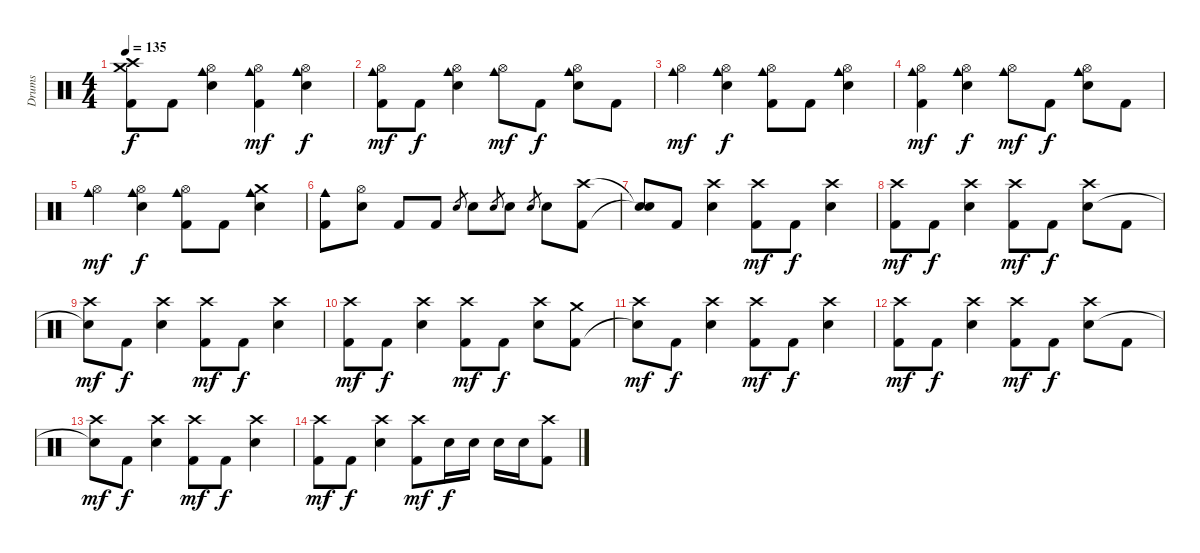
\track ("Drums" "Drums") {instrument percussion}
\staff {score}
\articulation defaults
\ts (4 4)
\tempo 135
\clef neutral
\ks c
("Crash high (hit)"{t} "Crash medium (hit)"{t} "Kick (hit) 2"{t}).8{dy f} "Kick (hit) 2".8 ("Hi-Hat (open)" "Cowbell medium (hit)" "Electric Snare (hit)").4 ("Hi-Hat (open)" "Cowbell medium (hit)" "Kick (hit) 2").4{dy mf} ("Hi-Hat (open)" "Cowbell medium (hit)" "Electric Snare (hit)").4{dy f} |
("Hi-Hat (open)" "Cowbell medium (hit)" "Kick (hit) 2").8{dy mf} "Kick (hit) 2".8{dy f} ("Hi-Hat (open)" "Cowbell medium (hit)" "Electric Snare (hit)").4 ("Hi-Hat (open)" "Cowbell medium (hit)").8{dy mf} "Kick (hit) 2".8{dy f} ("Hi-Hat (open)" "Cowbell medium (hit)" "Electric Snare (hit)").8 "Kick (hit) 2".8 |
("Hi-Hat (open)" "Cowbell medium (hit)").4{dy mf} ("Hi-Hat (open)" "Cowbell medium (hit)" "Electric Snare (hit)").4{dy f} ("Hi-Hat (open)" "Cowbell medium (hit)" "Kick (hit) 2").8 "Kick (hit) 2".8 ("Hi-Hat (open)" "Cowbell medium (hit)" "Electric Snare (hit)").4 |
("Hi-Hat (open)" "Cowbell medium (hit)" "Kick (hit) 2").4{dy mf} ("Hi-Hat (open)" "Cowbell medium (hit)" "Electric Snare (hit)").4{dy f} ("Hi-Hat (open)" "Cowbell medium (hit)").8{dy mf} "Kick (hit) 2".8{dy f} ("Hi-Hat (open)" "Cowbell medium (hit)" "Electric Snare (hit)").8 "Kick (hit) 2".8 |
("Hi-Hat (open)" "Cowbell medium (hit)").4{dy mf} ("Hi-Hat (open)" "Cowbell medium (hit)" "Electric Snare (hit)").4{dy f} ("Hi-Hat (open)" "Cowbell medium (hit)" "Kick (hit) 2").8 "Kick (hit) 2".8 ("Crash medium (hit)" "Cowbell medium (hit)" "Electric Snare (hit)").4 |
("Cowbell medium (hit)" "Kick (hit) 2").8 ("Hi-Hat (open)" "Electric Snare (hit)").8 "Kick (hit) 2".8 "Kick (hit) 2".8 "Electric Snare (hit)".8{gr} "Electric Snare (hit)".8 "Electric Snare (hit)".8{gr} "Electric Snare (hit)".8 "Electric Snare (hit)".8{gr} "Electric Snare (hit)".8 ("Crash high (hit)" "Kick (hit) 2").8 |
("Snare (hit)"{t} "Snare (hit)"{t}).8 "Kick (hit) 2".8 ("Crash high (hit)" "Electric Snare (hit)").4 ("Crash high (hit)" "Kick (hit) 2").8{dy mf} "Kick (hit) 2".8{dy f} ("Crash high (hit)" "Electric Snare (hit)").4 |
("Crash high (hit)" "Kick (hit) 2").8{dy mf} "Kick (hit) 2".8{dy f} ("Crash high (hit)" "Electric Snare (hit)").4 ("Crash high (hit)" "Kick (hit) 2").8{dy mf} "Kick (hit) 2".8{dy f} ("Crash high (hit)" "Electric Snare (hit)").8 "Kick (hit) 2".8 |
("Crash high (hit)" "Snare (hit)"{t}).8{dy mf} "Kick (hit) 2".8{dy f} ("Crash high (hit)" "Electric Snare (hit)").4 ("Crash high (hit)" "Kick (hit) 2").8{dy mf} "Kick (hit) 2".8{dy f} ("Crash high (hit)" "Electric Snare (hit)").4 |
("Crash high (hit)" "Kick (hit) 2").8{dy mf} "Kick (hit) 2".8{dy f} ("Crash high (hit)" "Electric Snare (hit)").4 ("Crash high (hit)" "Kick (hit) 2").8{dy mf} "Kick (hit) 2".8{dy f} ("Crash high (hit)" "Electric Snare (hit)").8 ("Crash medium (hit)" "Kick (hit) 2").8 |
("Crash high (hit)" "Snare (hit)"{t}).8{dy mf} "Kick (hit) 2".8{dy f} ("Crash high (hit)" "Electric Snare (hit)").4 ("Crash high (hit)" "Kick (hit) 2").8{dy mf} "Kick (hit) 2".8{dy f} ("Crash high (hit)" "Electric Snare (hit)").4 |
("Crash high (hit)" "Kick (hit) 2").8{dy mf} "Kick (hit) 2".8{dy f} ("Crash high (hit)" "Electric Snare (hit)").4 ("Crash high (hit)" "Kick (hit) 2").8{dy mf} "Kick (hit) 2".8{dy f} ("Crash high (hit)" "Electric Snare (hit)").8 "Kick (hit) 2".8 |
("Crash high (hit)" "Snare (hit)"{t}).8{dy mf} "Kick (hit) 2".8{dy f} ("Crash high (hit)" "Electric Snare (hit)").4 ("Crash high (hit)" "Kick (hit) 2").8{dy mf} "Kick (hit) 2".8{dy f} ("Crash high (hit)" "Electric Snare (hit)").4 |
("Crash high (hit)" "Kick (hit) 2").8{dy mf} "Kick (hit) 2".8{dy f} ("Crash high (hit)" "Electric Snare (hit)").4 ("Crash high (hit)" "Kick (hit) 2").8{dy mf} "Electric Snare (hit)".16{dy f} "Electric Snare (hit)".16 "Electric Snare (hit)".16 "Electric Snare (hit)".16 ("Crash high (hit)" "Kick (hit) 2").8
